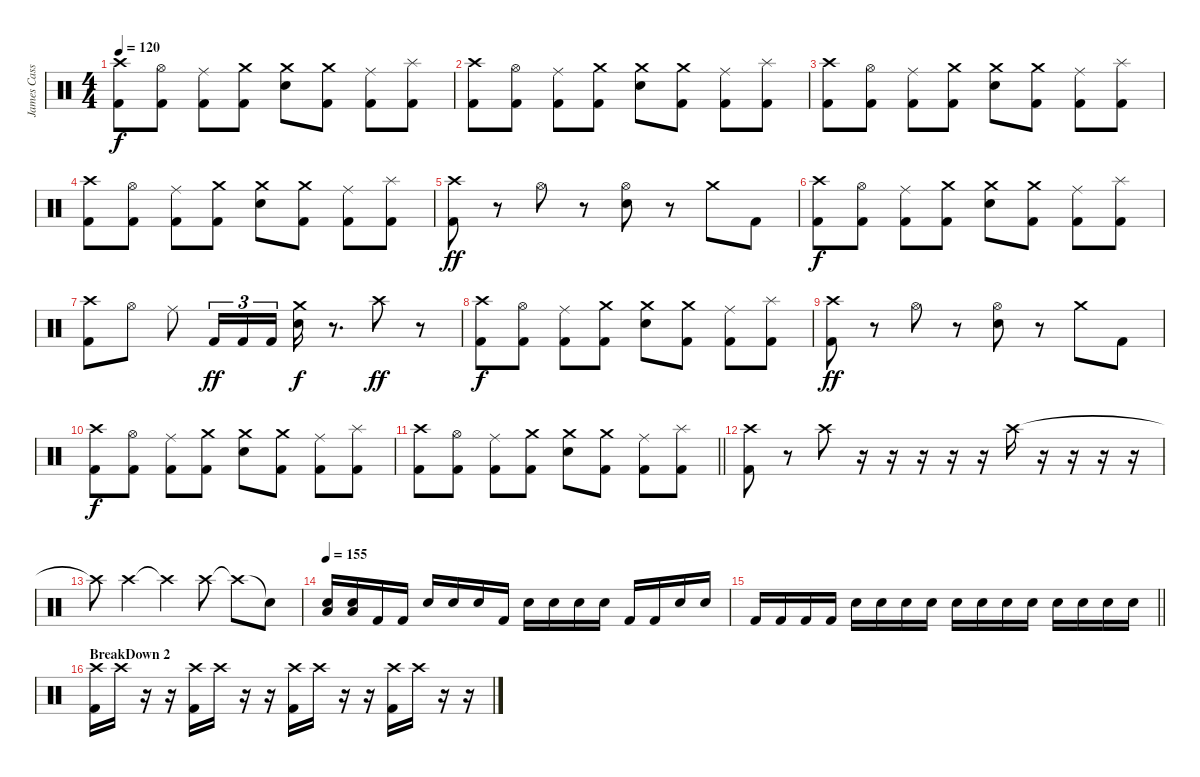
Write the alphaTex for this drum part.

\track ("James Cassels" "James Cass") {instrument percussion}
\staff {score}
\articulation defaults
\ts (4 4)
\tempo 120
\clef neutral
\ks c
("Crash high (hit)" "Kick (hit) 2").8{dy f} ("Hi-Hat (open)" "Kick (hit) 2").8 ("Ride (middle)" "Kick (hit) 2").8 ("Crash medium (hit)" "Kick (hit) 2").8 ("Crash medium (hit)" "Electric Snare (hit)").8 ("Crash medium (hit)" "Kick (hit) 2").8 ("Ride (middle)" "Kick (hit) 2").8 ("Splash (hit)" "Kick (hit) 2").8 |
("Crash high (hit)" "Kick (hit) 2").8 ("Hi-Hat (open)" "Kick (hit) 2").8 ("Ride (middle)" "Kick (hit) 2").8 ("Crash medium (hit)" "Kick (hit) 2").8 ("Crash medium (hit)" "Electric Snare (hit)").8 ("Crash medium (hit)" "Kick (hit) 2").8 ("Ride (middle)" "Kick (hit) 2").8 ("Splash (hit)" "Kick (hit) 2").8 |
("Crash high (hit)" "Kick (hit) 2").8 ("Hi-Hat (open)" "Kick (hit) 2").8 ("Ride (middle)" "Kick (hit) 2").8 ("Crash medium (hit)" "Kick (hit) 2").8 ("Crash medium (hit)" "Electric Snare (hit)").8 ("Crash medium (hit)" "Kick (hit) 2").8 ("Ride (middle)" "Kick (hit) 2").8 ("Splash (hit)" "Kick (hit) 2").8 |
("Crash high (hit)" "Kick (hit) 2").8 ("Hi-Hat (open)" "Kick (hit) 2").8 ("Ride (middle)" "Kick (hit) 2").8 ("Crash medium (hit)" "Kick (hit) 2").8 ("Crash medium (hit)" "Electric Snare (hit)").8 ("Crash medium (hit)" "Kick (hit) 2").8 ("Ride (middle)" "Kick (hit) 2").8 ("Splash (hit)" "Kick (hit) 2").8 |
("Crash high (hit)" "Kick (hit) 2").8{dy ff} r.8 "Hi-Hat (open)".8 r.8 ("Hi-Hat (open)" "Electric Snare (hit)").8 r.8 "Crash medium (hit)".8 "Kick (hit) 2".8 |
("Crash high (hit)" "Kick (hit) 2").8{dy f} ("Hi-Hat (open)" "Kick (hit) 2").8 ("Ride (middle)" "Kick (hit) 2").8 ("Crash medium (hit)" "Kick (hit) 2").8 ("Crash medium (hit)" "Electric Snare (hit)").8 ("Crash medium (hit)" "Kick (hit) 2").8 ("Ride (middle)" "Kick (hit) 2").8 ("Splash (hit)" "Kick (hit) 2").8 |
("Crash high (hit)" "Kick (hit) 2").8 "Hi-Hat (open)".8 "Ride (middle)".8 "Kick (hit) 2".16{tu (3 2) dy ff} "Kick (hit) 2".16{tu (3 2)} "Kick (hit) 2".16{tu (3 2)} ("Crash medium (hit)" "Electric Snare (hit)").16{dy f} r.8{d} "Crash high (hit)".8{dy ff} r.8 |
("Crash high (hit)" "Kick (hit) 2").8{dy f} ("Hi-Hat (open)" "Kick (hit) 2").8 ("Ride (middle)" "Kick (hit) 2").8 ("Crash medium (hit)" "Kick (hit) 2").8 ("Crash medium (hit)" "Electric Snare (hit)").8 ("Crash medium (hit)" "Kick (hit) 2").8 ("Ride (middle)" "Kick (hit) 2").8 ("Splash (hit)" "Kick (hit) 2").8 |
("Crash high (hit)" "Kick (hit) 2").8{dy ff} r.8 "Hi-Hat (open)".8 r.8 ("Hi-Hat (open)" "Electric Snare (hit)").8 r.8 "Crash medium (hit)".8 "Kick (hit) 2".8 |
("Crash high (hit)" "Kick (hit) 2").8{dy f} ("Hi-Hat (open)" "Kick (hit) 2").8 ("Ride (middle)" "Kick (hit) 2").8 ("Crash medium (hit)" "Kick (hit) 2").8 ("Crash medium (hit)" "Electric Snare (hit)").8 ("Crash medium (hit)" "Kick (hit) 2").8 ("Ride (middle)" "Kick (hit) 2").8 ("Splash (hit)" "Kick (hit) 2").8 |
\barLineRight lightlight
("Crash high (hit)" "Kick (hit) 2").8 ("Hi-Hat (open)" "Kick (hit) 2").8 ("Ride (middle)" "Kick (hit) 2").8 ("Crash medium (hit)" "Kick (hit) 2").8 ("Crash medium (hit)" "Electric Snare (hit)").8 ("Crash medium (hit)" "Kick (hit) 2").8 ("Ride (middle)" "Kick (hit) 2").8 ("Splash (hit)" "Kick (hit) 2").8 |
("Crash high (hit)" "Kick (hit) 2").8 r.8 "Crash high (hit)".8 r.16 r.16 r.16 r.16 r.16 "Crash high (hit)".16 r.16 r.16 r.16 r.16 |
"Crash high (hit)"{t}.8 "Crash high (hit)".4 "Crash high (hit)"{t}.4 "Crash high (hit)".8 "Crash high (hit)"{t}.8 "Snare (hit)"{t}.8 |
\tempo 155
("Electric Snare (hit)" "Low Floor Tom (hit)").16 ("Electric Snare (hit)" "Low Floor Tom (hit)").16 "Kick (hit) 2".16 "Kick (hit) 2".16 "Electric Snare (hit)".16 "Electric Snare (hit)".16 "Electric Snare (hit)".16 "Kick (hit) 2".16 "Electric Snare (hit)".16 "Electric Snare (hit)".16 "Electric Snare (hit)".16 "Electric Snare (hit)".16 "Kick (hit) 2".16 "Kick (hit) 2".16 "Electric Snare (hit)".16 "Electric Snare (hit)".16 |
\barLineRight lightlight "Kick (hit) 2".16 "Kick (hit) 2".16 "Kick (hit) 2".16 "Kick (hit) 2".16 "Electric Snare (hit)".16 "Electric Snare (hit)".16 "Electric Snare (hit)".16 "Electric Snare (hit)".16 "Electric Snare (hit)".16 "Electric Snare (hit)".16 "Electric Snare (hit)".16 "Electric Snare (hit)".16 "Electric Snare (hit)".16 "Electric Snare (hit)".16 "Electric Snare (hit)".16 "Electric Snare (hit)".16
|
\section ("" "BreakDown 2")
("Kick (hit) 2" "Crash high (hit)").16 "Crash high (hit)".16 r.16 r.16 ("Kick (hit) 2" "Crash high (hit)").16 "Crash high (hit)".16 r.16 r.16 ("Kick (hit) 2" "Crash high (hit)").16 "Crash high (hit)".16 r.16 r.16 ("Crash high (hit)" "Kick (hit) 2").16 "Crash high (hit)".16 r.16 r.16
